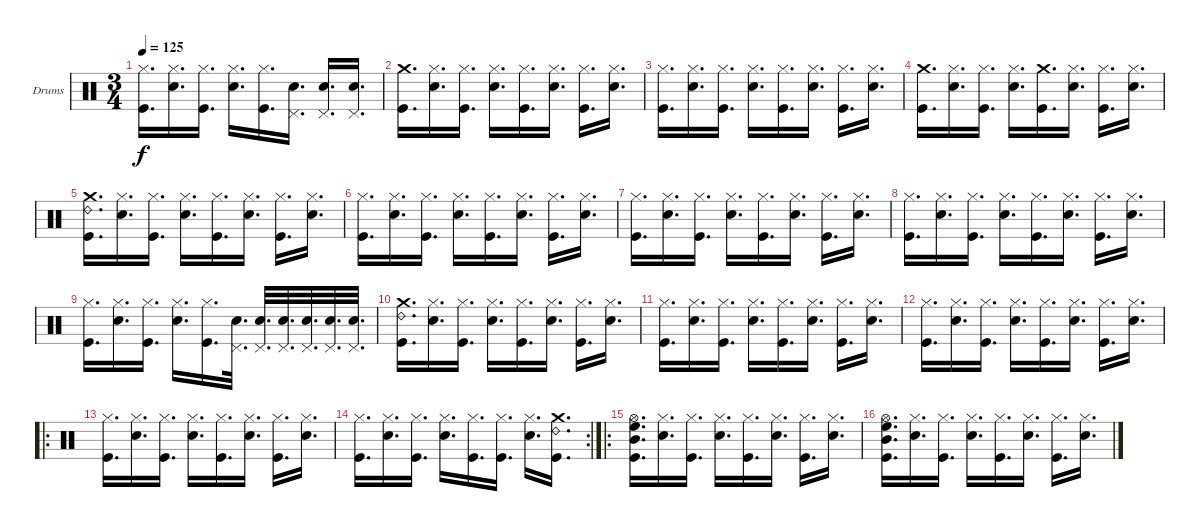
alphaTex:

\defaultSystemsLayout 4
\bracketExtendMode groupsimilarinstruments
\firstSystemTrackNameOrientation horizontal
\otherSystemsTrackNameOrientation horizontal
\track ("Drumkit" "Drums") {instrument percussion}
\staff {score}
\articulation defaults
\ts (3 4)
\tempo 125
\clef neutral
\ks c
("Kick (hit)" "Hi-Hat (closed)").16{d dy f} ("Snare (hit) 2" "Hi-Hat (closed)").16{d} ("Kick (hit)" "Hi-Hat (closed)").16{d} ("Snare (hit) 2" "Hi-Hat (closed)").16{d} ("Kick (hit)" "Hi-Hat (closed)").16{d} ("Pedal Hi-Hat (hit)" "Snare (hit) 2").16{d} ("Pedal Hi-Hat (hit)" "Snare (hit) 2").16{d} ("Pedal Hi-Hat (hit)" "Snare (hit) 2").16{d} |
("Kick (hit)" "Crash medium (hit)").16{d} ("Snare (hit) 2" "Hi-Hat (closed)").16{d} ("Kick (hit)" "Hi-Hat (closed)").16{d} ("Snare (hit) 2" "Hi-Hat (closed)").16{d} ("Kick (hit)" "Hi-Hat (closed)").16{d} ("Snare (hit) 2" "Hi-Hat (closed)").16{d} ("Kick (hit)" "Hi-Hat (closed)").16{d} ("Snare (hit) 2" "Hi-Hat (closed)").16{d} |
("Kick (hit)" "Hi-Hat (closed)").16{d} ("Snare (hit) 2" "Hi-Hat (closed)").16{d} ("Kick (hit)" "Hi-Hat (closed)").16{d} ("Snare (hit) 2" "Hi-Hat (closed)").16{d} ("Kick (hit)" "Hi-Hat (closed)").16{d} ("Snare (hit) 2" "Hi-Hat (closed)").16{d} ("Kick (hit)" "Hi-Hat (closed)").16{d} ("Snare (hit) 2" "Hi-Hat (closed)").16{d} |
("Kick (hit)" "Crash medium (hit)").16{d} ("Snare (hit) 2" "Hi-Hat (closed)").16{d} ("Kick (hit)" "Hi-Hat (closed)").16{d} ("Snare (hit) 2" "Hi-Hat (closed)").16{d} ("Kick (hit)" "Crash medium (hit)").16{d} ("Snare (hit) 2" "Hi-Hat (closed)").16{d} ("Kick (hit)" "Hi-Hat (closed)").16{d} ("Snare (hit) 2" "Hi-Hat (closed)").16{d} |
("Kick (hit)" "Crash medium (hit)" "Ride (bell) 2").16{d} ("Snare (hit) 2" "Hi-Hat (closed)").16{d} ("Kick (hit)" "Hi-Hat (closed)").16{d} ("Snare (hit) 2" "Hi-Hat (closed)").16{d} ("Kick (hit)" "Hi-Hat (closed)").16{d} ("Snare (hit) 2" "Hi-Hat (closed)").16{d} ("Kick (hit)" "Hi-Hat (closed)").16{d} ("Snare (hit) 2" "Hi-Hat (closed)").16{d} |
("Kick (hit)" "Hi-Hat (closed)").16{d} ("Snare (hit) 2" "Hi-Hat (closed)").16{d} ("Kick (hit)" "Hi-Hat (closed)").16{d} ("Snare (hit) 2" "Hi-Hat (closed)").16{d} ("Kick (hit)" "Hi-Hat (closed)").16{d} ("Snare (hit) 2" "Hi-Hat (closed)").16{d} ("Kick (hit)" "Hi-Hat (closed)").16{d} ("Snare (hit) 2" "Hi-Hat (closed)").16{d} |
("Kick (hit)" "Hi-Hat (closed)").16{d} ("Snare (hit) 2" "Hi-Hat (closed)").16{d} ("Kick (hit)" "Hi-Hat (closed)").16{d} ("Snare (hit) 2" "Hi-Hat (closed)").16{d} ("Kick (hit)" "Hi-Hat (closed)").16{d} ("Snare (hit) 2" "Hi-Hat (closed)").16{d} ("Kick (hit)" "Hi-Hat (closed)").16{d} ("Snare (hit) 2" "Hi-Hat (closed)").16{d} |
("Kick (hit)" "Hi-Hat (closed)").16{d} ("Snare (hit) 2" "Hi-Hat (closed)").16{d} ("Kick (hit)" "Hi-Hat (closed)").16{d} ("Snare (hit) 2" "Hi-Hat (closed)").16{d} ("Kick (hit)" "Hi-Hat (closed)").16{d} ("Snare (hit) 2" "Hi-Hat (closed)").16{d} ("Kick (hit)" "Hi-Hat (closed)").16{d} ("Snare (hit) 2" "Hi-Hat (closed)").16{d} |
("Kick (hit)" "Hi-Hat (closed)").16{d} ("Snare (hit) 2" "Hi-Hat (closed)").16{d} ("Kick (hit)" "Hi-Hat (closed)").16{d} ("Snare (hit) 2" "Hi-Hat (closed)").16{d} ("Kick (hit)" "Hi-Hat (closed)").16{d} ("Pedal Hi-Hat (hit)" "Snare (hit) 2").32{d} ("Pedal Hi-Hat (hit)" "Snare (hit) 2").32{d} ("Pedal Hi-Hat (hit)" "Snare (hit) 2").32{d} ("Pedal Hi-Hat (hit)" "Snare (hit) 2").32{d} ("Pedal Hi-Hat (hit)" "Snare (hit) 2").32{d} ("Pedal Hi-Hat (hit)" "Snare (hit) 2").32{d} |
("Kick (hit)" "Crash medium (hit)" "Ride (bell) 2").16{d} ("Snare (hit) 2" "Hi-Hat (closed)").16{d} ("Kick (hit)" "Hi-Hat (closed)").16{d} ("Snare (hit) 2" "Hi-Hat (closed)").16{d} ("Kick (hit)" "Hi-Hat (closed)").16{d} ("Snare (hit) 2" "Hi-Hat (closed)").16{d} ("Kick (hit)" "Hi-Hat (closed)").16{d} ("Snare (hit) 2" "Hi-Hat (closed)").16{d} |
("Kick (hit)" "Hi-Hat (closed)").16{d} ("Snare (hit) 2" "Hi-Hat (closed)").16{d} ("Kick (hit)" "Hi-Hat (closed)").16{d} ("Snare (hit) 2" "Hi-Hat (closed)").16{d} ("Kick (hit)" "Hi-Hat (closed)").16{d} ("Snare (hit) 2" "Hi-Hat (closed)").16{d} ("Kick (hit)" "Hi-Hat (closed)").16{d} ("Snare (hit) 2" "Hi-Hat (closed)").16{d} |
("Kick (hit)" "Hi-Hat (closed)").16{d} ("Snare (hit) 2" "Hi-Hat (closed)").16{d} ("Kick (hit)" "Hi-Hat (closed)").16{d} ("Snare (hit) 2" "Hi-Hat (closed)").16{d} ("Kick (hit)" "Hi-Hat (closed)").16{d} ("Snare (hit) 2" "Hi-Hat (closed)").16{d} ("Kick (hit)" "Hi-Hat (closed)").16{d} ("Snare (hit) 2" "Hi-Hat (closed)").16{d} |
\ro
("Kick (hit)" "Hi-Hat (closed)").16{d} ("Snare (hit) 2" "Hi-Hat (closed)").16{d} ("Kick (hit)" "Hi-Hat (closed)").16{d} ("Snare (hit) 2" "Hi-Hat (closed)").16{d} ("Kick (hit)" "Hi-Hat (closed)").16{d} ("Snare (hit) 2" "Hi-Hat (closed)").16{d} ("Kick (hit)" "Hi-Hat (closed)").16{d} ("Snare (hit) 2" "Hi-Hat (closed)").16{d} |
\rc 2
("Kick (hit)" "Hi-Hat (closed)").16{d} ("Snare (hit) 2" "Hi-Hat (closed)").16{d} ("Kick (hit)" "Hi-Hat (closed)").16{d} ("Snare (hit) 2" "Hi-Hat (closed)").16{d} ("Kick (hit)" "Hi-Hat (closed)").16{d} ("Kick (hit)" "Hi-Hat (closed)").16{d} ("Snare (hit) 2" "Hi-Hat (closed)").16{d} ("Kick (hit)" "Crash medium (hit)" "Ride (bell) 2").16{d} |
\ro
("Kick (hit)" "Hi-Hat (open)" "Mid Tom (hit)" "High Floor Tom (hit)").16{d} ("Snare (hit) 2" "Hi-Hat (closed)").16{d} ("Kick (hit)" "Hi-Hat (closed)").16{d} ("Snare (hit) 2" "Hi-Hat (closed)").16{d} ("Kick (hit)" "Hi-Hat (closed)").16{d} ("Snare (hit) 2" "Hi-Hat (closed)").16{d} ("Kick (hit)" "Hi-Hat (closed)").16{d} ("Snare (hit) 2" "Hi-Hat (closed)").16{d} |
("Kick (hit)" "Hi-Hat (open)" "Mid Tom (hit)" "High Floor Tom (hit)").16{d} ("Snare (hit) 2" "Hi-Hat (closed)").16{d} ("Kick (hit)" "Hi-Hat (closed)").16{d} ("Snare (hit) 2" "Hi-Hat (closed)").16{d} ("Kick (hit)" "Hi-Hat (closed)").16{d} ("Snare (hit) 2" "Hi-Hat (closed)").16{d} ("Kick (hit)" "Hi-Hat (closed)").16{d} ("Snare (hit) 2" "Hi-Hat (closed)").16{d}
